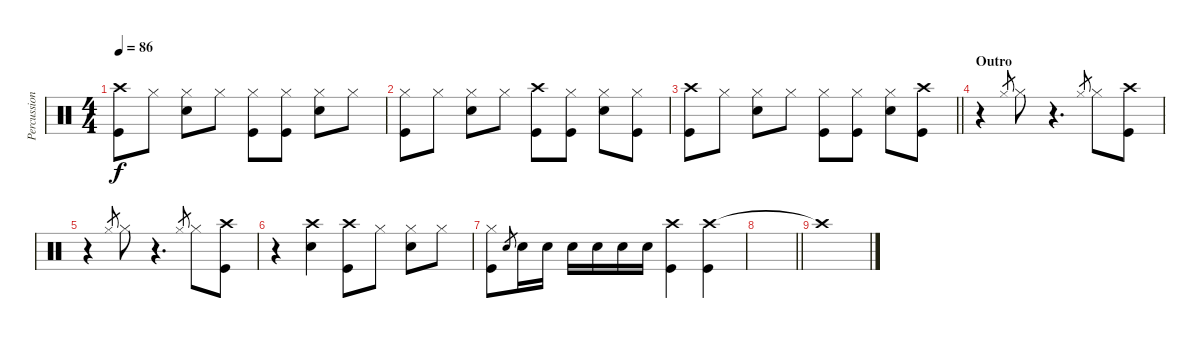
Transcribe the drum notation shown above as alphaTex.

\track ("Percussion" "Percussion") {instrument percussion}
\staff {score}
\articulation defaults
\ts (4 4)
\tempo 86
\clef neutral
\ks c
("Crash high (hit)" "Kick (hit)").8{dy f} "Hi-Hat (closed)".8 ("Hi-Hat (closed)" "Electric Snare (hit)").8 "Hi-Hat (closed)".8 ("Hi-Hat (closed)" "Kick (hit)").8 ("Hi-Hat (closed)" "Kick (hit)").8 ("Hi-Hat (closed)" "Electric Snare (hit)").8 "Hi-Hat (closed)".8 |
("Hi-Hat (closed)" "Kick (hit)").8 "Hi-Hat (closed)".8 ("Hi-Hat (closed)" "Electric Snare (hit)").8 "Hi-Hat (closed)".8 ("Crash high (hit)" "Kick (hit)").8 ("Hi-Hat (closed)" "Kick (hit)").8 ("Hi-Hat (closed)" "Electric Snare (hit)").8 ("Hi-Hat (closed)" "Kick (hit)").8 |
\barLineRight lightlight
("Crash high (hit)" "Kick (hit)").8 "Hi-Hat (closed)".8 ("Hi-Hat (closed)" "Electric Snare (hit)").8 "Hi-Hat (closed)".8 ("Hi-Hat (closed)" "Kick (hit)").8 ("Hi-Hat (closed)" "Kick (hit)").8 ("Hi-Hat (closed)" "Electric Snare (hit)").8 ("Crash high (hit)" "Kick (hit)").8 |
\section ("" "Outro")
r.4 "Hi-Hat (closed)"{sl}.8{gr} "Hi-Hat (closed)".8 r.4{d} "Hi-Hat (closed)".8{gr} "Hi-Hat (closed)".8 ("Crash high (hit)" "Kick (hit)").8 |
r.4 "Hi-Hat (closed)".8{gr} "Hi-Hat (closed)".8 r.4{d} "Hi-Hat (closed)".8{gr} "Hi-Hat (closed)".8 ("Crash high (hit)" "Kick (hit)").8 |
r.4 ("Crash high (hit)" "Electric Snare (hit)").4 ("Crash high (hit)" "Kick (hit)").8 "Hi-Hat (closed)".8 ("Hi-Hat (closed)" "Electric Snare (hit)").8 "Hi-Hat (closed)".8 |
("Hi-Hat (closed)" "Kick (hit)").8 "Electric Snare (hit)".8{gr} "Electric Snare (hit)".16 "Electric Snare (hit)".16 "Electric Snare (hit)".16 "Electric Snare (hit)".16 "Electric Snare (hit)".16 "Electric Snare (hit)".16 ("Crash high (hit)" "Kick (hit)").4 ("Crash high (hit)" "Kick (hit)").4 |
\barLineRight lightlight
|
"Crash high (hit)"{t}.1
